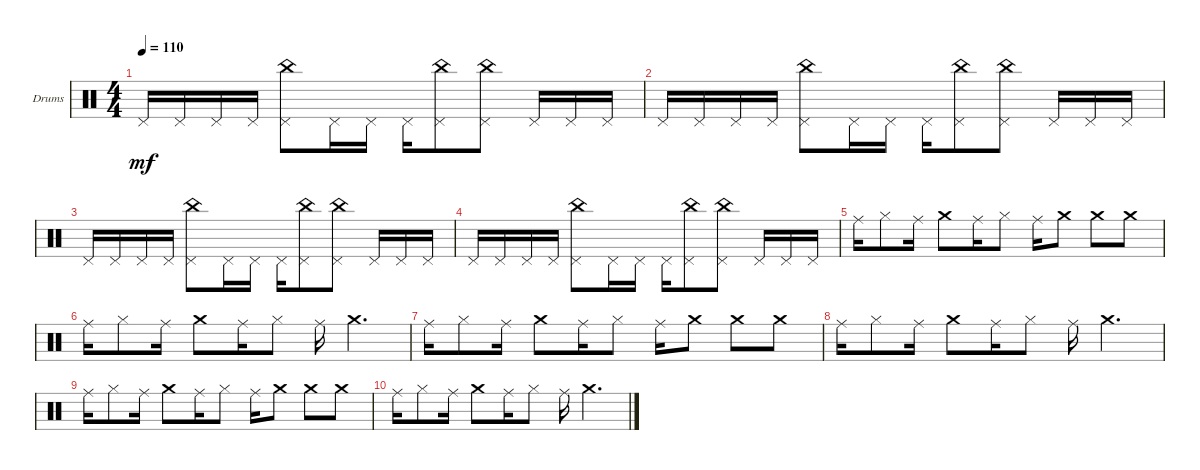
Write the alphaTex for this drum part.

\defaultSystemsLayout 4
\bracketExtendMode groupsimilarinstruments
\firstSystemTrackNameOrientation horizontal
\otherSystemsTrackNameOrientation horizontal
\track ("Drumkit" "Drums") {instrument percussion}
\staff {score}
\articulation defaults
\ts (4 4)
\tempo 110
\clef neutral
\ks c "Pedal Hi-Hat (hit)".16{dy mf} "Pedal Hi-Hat (hit)".16 "Pedal Hi-Hat (hit)".16 "Pedal Hi-Hat (hit)".16
("Pedal Hi-Hat (hit)" "China (hit)").8 "Pedal Hi-Hat (hit)".16 "Pedal Hi-Hat (hit)".16 "Pedal Hi-Hat (hit)".16 ("Pedal Hi-Hat (hit)" "China (hit)").8 ("China (hit)" "Pedal Hi-Hat (hit)").8 "Pedal Hi-Hat (hit)".16 "Pedal Hi-Hat (hit)".16 "Pedal Hi-Hat (hit)".16 |
"Pedal Hi-Hat (hit)".16 "Pedal Hi-Hat (hit)".16 "Pedal Hi-Hat (hit)".16 "Pedal Hi-Hat (hit)".16 ("Pedal Hi-Hat (hit)" "China (hit)").8 "Pedal Hi-Hat (hit)".16 "Pedal Hi-Hat (hit)".16 "Pedal Hi-Hat (hit)".16 ("Pedal Hi-Hat (hit)" "China (hit)").8 ("China (hit)" "Pedal Hi-Hat (hit)").8 "Pedal Hi-Hat (hit)".16 "Pedal Hi-Hat (hit)".16 "Pedal Hi-Hat (hit)".16 |
"Pedal Hi-Hat (hit)".16 "Pedal Hi-Hat (hit)".16 "Pedal Hi-Hat (hit)".16 "Pedal Hi-Hat (hit)".16 ("Pedal Hi-Hat (hit)" "China (hit)").8 "Pedal Hi-Hat (hit)".16 "Pedal Hi-Hat (hit)".16 "Pedal Hi-Hat (hit)".16 ("Pedal Hi-Hat (hit)" "China (hit)").8 ("China (hit)" "Pedal Hi-Hat (hit)").8 "Pedal Hi-Hat (hit)".16 "Pedal Hi-Hat (hit)".16 "Pedal Hi-Hat (hit)".16 |
"Pedal Hi-Hat (hit)".16 "Pedal Hi-Hat (hit)".16 "Pedal Hi-Hat (hit)".16 "Pedal Hi-Hat (hit)".16 ("Pedal Hi-Hat (hit)" "China (hit)").8 "Pedal Hi-Hat (hit)".16 "Pedal Hi-Hat (hit)".16 "Pedal Hi-Hat (hit)".16 ("Pedal Hi-Hat (hit)" "China (hit)").8 ("China (hit)" "Pedal Hi-Hat (hit)").8 "Pedal Hi-Hat (hit)".16 "Pedal Hi-Hat (hit)".16 "Pedal Hi-Hat (hit)".16 |
"Ride (middle)".16 "Hi-Hat (closed)".8 "Ride (middle)".16 "Crash medium (hit)".8 "Ride (middle)".16 "Hi-Hat (closed)".8 "Ride (middle)".16 "Crash medium (hit)".8 "Crash medium (hit)".8 "Crash medium (hit)".8 |
"Ride (middle)".16 "Hi-Hat (closed)".8 "Ride (middle)".16 "Crash medium (hit)".8 "Ride (middle)".16 "Hi-Hat (closed)".8 "Ride (middle)".16 "Crash medium (hit)".4{d} |
"Ride (middle)".16 "Hi-Hat (closed)".8 "Ride (middle)".16 "Crash medium (hit)".8 "Ride (middle)".16 "Hi-Hat (closed)".8 "Ride (middle)".16 "Crash medium (hit)".8 "Crash medium (hit)".8 "Crash medium (hit)".8 |
"Ride (middle)".16 "Hi-Hat (closed)".8 "Ride (middle)".16 "Crash medium (hit)".8 "Ride (middle)".16 "Hi-Hat (closed)".8 "Ride (middle)".16 "Crash medium (hit)".4{d} |
"Ride (middle)".16 "Hi-Hat (closed)".8 "Ride (middle)".16 "Crash medium (hit)".8 "Ride (middle)".16 "Hi-Hat (closed)".8 "Ride (middle)".16 "Crash medium (hit)".8 "Crash medium (hit)".8 "Crash medium (hit)".8 |
"Ride (middle)".16 "Hi-Hat (closed)".8 "Ride (middle)".16 "Crash medium (hit)".8 "Ride (middle)".16 "Hi-Hat (closed)".8 "Ride (middle)".16 "Crash medium (hit)".4{d}
